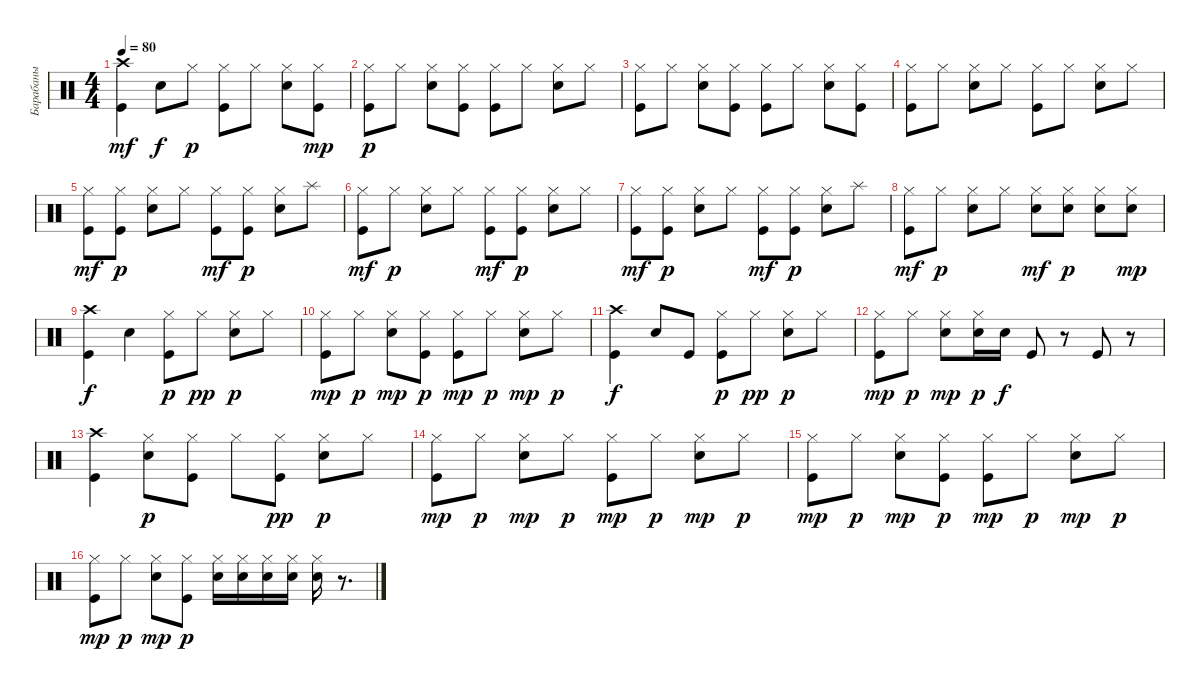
\track ("Барабаны" "Барабаны") {instrument percussion}
\staff {score}
\articulation defaults
\ts (4 4)
\tempo 80
\clef neutral
\ks c
("Crash high (hit)" "Kick (hit)").4{dy mf} "Snare (hit) 2".8{dy f} "Hi-Hat (closed)".8{dy p} ("Hi-Hat (closed)" "Kick (hit)").8 "Hi-Hat (closed)".8 ("Hi-Hat (closed)" "Snare (hit) 2").8 ("Hi-Hat (closed)" "Kick (hit)").8{dy mp} |
("Hi-Hat (closed)" "Kick (hit)").8{dy p} "Hi-Hat (closed)".8 ("Hi-Hat (closed)" "Snare (hit) 2").8 ("Hi-Hat (closed)" "Kick (hit)").8 ("Hi-Hat (closed)" "Kick (hit)").8 "Hi-Hat (closed)".8 ("Hi-Hat (closed)" "Snare (hit) 2").8 "Hi-Hat (closed)".8 |
("Hi-Hat (closed)" "Kick (hit)").8 "Hi-Hat (closed)".8 ("Hi-Hat (closed)" "Snare (hit) 2").8 ("Hi-Hat (closed)" "Kick (hit)").8 ("Hi-Hat (closed)" "Kick (hit)").8 "Hi-Hat (closed)".8 ("Hi-Hat (closed)" "Snare (hit) 2").8 ("Kick (hit)" "Hi-Hat (closed)").8 |
("Hi-Hat (closed)" "Kick (hit)").8 "Hi-Hat (closed)".8 ("Hi-Hat (closed)" "Snare (hit) 2").8 "Hi-Hat (closed)".8 ("Hi-Hat (closed)" "Kick (hit)").8 "Hi-Hat (closed)".8 ("Hi-Hat (closed)" "Snare (hit) 2").8 "Hi-Hat (closed)".8 |
("Hi-Hat (closed)" "Kick (hit)").8{dy mf} ("Kick (hit)" "Hi-Hat (closed)").8{dy p} ("Hi-Hat (closed)" "Snare (hit) 2").8 "Hi-Hat (closed)".8 ("Hi-Hat (closed)" "Kick (hit)").8{dy mf} ("Kick (hit)" "Hi-Hat (closed)").8{dy p} ("Hi-Hat (closed)" "Snare (hit) 2").8 "Splash (hit)".8 |
("Hi-Hat (closed)" "Kick (hit)").8{dy mf} "Hi-Hat (closed)".8{dy p} ("Hi-Hat (closed)" "Snare (hit) 2").8 "Hi-Hat (closed)".8 ("Hi-Hat (closed)" "Kick (hit)").8{dy mf} ("Kick (hit)" "Hi-Hat (closed)").8{dy p} ("Hi-Hat (closed)" "Snare (hit) 2").8 "Hi-Hat (closed)".8 |
("Hi-Hat (closed)" "Kick (hit)").8{dy mf} ("Kick (hit)" "Hi-Hat (closed)").8{dy p} ("Hi-Hat (closed)" "Snare (hit) 2").8 "Hi-Hat (closed)".8 ("Hi-Hat (closed)" "Kick (hit)").8{dy mf} ("Kick (hit)" "Hi-Hat (closed)").8{dy p} ("Hi-Hat (closed)" "Snare (hit) 2").8 "Splash (hit)".8 |
("Hi-Hat (closed)" "Kick (hit)").8{dy mf} "Hi-Hat (closed)".8{dy p} ("Hi-Hat (closed)" "Snare (hit) 2").8 "Hi-Hat (closed)".8 ("Hi-Hat (closed)" "Snare (hit) 2").8{dy mf} ("Snare (hit) 2" "Hi-Hat (closed)").8{dy p} ("Hi-Hat (closed)" "Snare (hit) 2").8 ("Hi-Hat (closed)" "Snare (hit) 2").8{dy mp} |
("Crash high (hit)" "Kick (hit)").4{dy f} "Snare (hit) 2".4 ("Kick (hit)" "Hi-Hat (closed)").8{dy p} "Hi-Hat (closed)".8{dy pp} ("Hi-Hat (closed)" "Snare (hit) 2").8{dy p} "Hi-Hat (closed)".8 |
("Kick (hit)" "Hi-Hat (closed)").8{dy mp} "Hi-Hat (closed)".8{dy p} ("Hi-Hat (closed)" "Snare (hit) 2").8{dy mp} ("Kick (hit)" "Hi-Hat (closed)").8{dy p} ("Hi-Hat (closed)" "Kick (hit)").8{dy mp} "Hi-Hat (closed)".8{dy p} ("Snare (hit) 2" "Hi-Hat (closed)").8{dy mp} "Hi-Hat (closed)".8{dy p} |
("Kick (hit)" "Crash high (hit)").4{dy f} "Snare (hit) 2".8 "Kick (hit)".8 ("Kick (hit)" "Hi-Hat (closed)").8{dy p} "Hi-Hat (closed)".8{dy pp} ("Hi-Hat (closed)" "Snare (hit) 2").8{dy p} "Hi-Hat (closed)".8 |
("Kick (hit)" "Hi-Hat (closed)").8{dy mp} "Hi-Hat (closed)".8{dy p} ("Snare (hit) 2" "Hi-Hat (closed)").8{dy mp} ("Snare (hit) 2" "Hi-Hat (closed)").16{dy p} "Snare (hit) 2".16{dy f} "Kick (hit)".8 r.8 "Kick (hit)".8 r.8 |
("Kick (hit)" "Crash high (hit)").4 ("Snare (hit) 2" "Hi-Hat (closed)").8{dy p} ("Kick (hit)" "Hi-Hat (closed)").8 "Hi-Hat (closed)".8 ("Kick (hit)" "Hi-Hat (closed)").8{dy pp} ("Snare (hit) 2" "Hi-Hat (closed)").8{dy p} "Hi-Hat (closed)".8 |
("Kick (hit)" "Hi-Hat (closed)").8{dy mp} "Hi-Hat (closed)".8{dy p} ("Snare (hit) 2" "Hi-Hat (closed)").8{dy mp} "Hi-Hat (closed)".8{dy p} ("Kick (hit)" "Hi-Hat (closed)").8{dy mp} "Hi-Hat (closed)".8{dy p} ("Snare (hit) 2" "Hi-Hat (closed)").8{dy mp} "Hi-Hat (closed)".8{dy p} |
("Kick (hit)" "Hi-Hat (closed)").8{dy mp} "Hi-Hat (closed)".8{dy p} ("Snare (hit) 2" "Hi-Hat (closed)").8{dy mp} ("Kick (hit)" "Hi-Hat (closed)").8{dy p} ("Kick (hit)" "Hi-Hat (closed)").8{dy mp} "Hi-Hat (closed)".8{dy p} ("Snare (hit) 2" "Hi-Hat (closed)").8{dy mp} "Hi-Hat (closed)".8{dy p} |
("Kick (hit)" "Hi-Hat (closed)").8{dy mp} "Hi-Hat (closed)".8{dy p} ("Snare (hit) 2" "Hi-Hat (closed)").8{dy mp} ("Kick (hit)" "Hi-Hat (closed)").8{dy p} ("Hi-Hat (closed)" "Snare (hit) 2").16 ("Hi-Hat (closed)" "Snare (hit) 2").16 ("Hi-Hat (closed)" "Snare (hit) 2").16 ("Hi-Hat (closed)" "Snare (hit) 2").16 ("Hi-Hat (closed)" "Snare (hit) 2").16 r.8{d}
